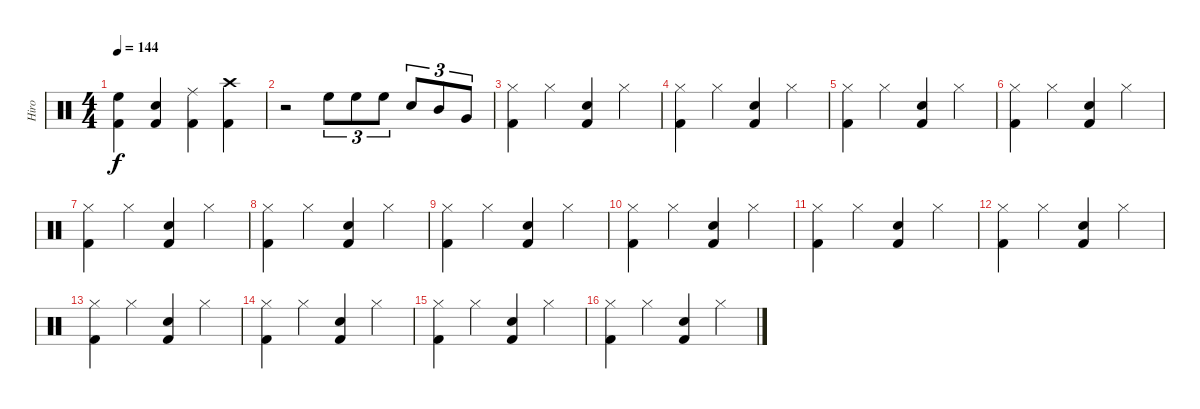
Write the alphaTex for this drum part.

\track ("Hiro" "Hiro") {instrument percussion}
\staff {score}
\articulation defaults
\ts (4 4)
\tempo 144
\clef neutral
\ks c
("High Floor Tom (hit)" "Kick (hit) 2").4{dy f} ("Snare (hit) 2" "Kick (hit) 2").4 ("Kick (hit) 2" "Ride (middle)").4 ("Crash high (hit)" "Kick (hit) 2").4 |
r.2 "High Floor Tom (hit)".8{tu (3 2)} "High Floor Tom (hit)".8{tu (3 2)} "High Floor Tom (hit)".8{tu (3 2)} "Snare (hit) 2".8{tu (3 2)} "Mid Tom (hit)".8{tu (3 2)} "Very Low Tom (hit)".8{tu (3 2)} |
("Hi-Hat (closed)" "Kick (hit) 2").4 "Hi-Hat (closed)".4 ("Kick (hit) 2" "Snare (hit) 2").4 "Hi-Hat (closed)".4 |
("Hi-Hat (closed)" "Kick (hit) 2").4 "Hi-Hat (closed)".4 ("Kick (hit) 2" "Snare (hit) 2").4 "Hi-Hat (closed)".4 |
("Hi-Hat (closed)" "Kick (hit) 2").4 "Hi-Hat (closed)".4 ("Kick (hit) 2" "Snare (hit) 2").4 "Hi-Hat (closed)".4 |
("Hi-Hat (closed)" "Kick (hit) 2").4 "Hi-Hat (closed)".4 ("Kick (hit) 2" "Snare (hit) 2").4 "Hi-Hat (closed)".4 |
("Hi-Hat (closed)" "Kick (hit) 2").4 "Hi-Hat (closed)".4 ("Kick (hit) 2" "Snare (hit) 2").4 "Hi-Hat (closed)".4 |
("Hi-Hat (closed)" "Kick (hit) 2").4 "Hi-Hat (closed)".4 ("Kick (hit) 2" "Snare (hit) 2").4 "Hi-Hat (closed)".4 |
("Hi-Hat (closed)" "Kick (hit) 2").4 "Hi-Hat (closed)".4 ("Kick (hit) 2" "Snare (hit) 2").4 "Hi-Hat (closed)".4 |
("Hi-Hat (closed)" "Kick (hit) 2").4 "Hi-Hat (closed)".4 ("Kick (hit) 2" "Snare (hit) 2").4 "Hi-Hat (closed)".4 |
("Hi-Hat (closed)" "Kick (hit) 2").4 "Hi-Hat (closed)".4 ("Kick (hit) 2" "Snare (hit) 2").4 "Hi-Hat (closed)".4 |
("Hi-Hat (closed)" "Kick (hit) 2").4 "Hi-Hat (closed)".4 ("Kick (hit) 2" "Snare (hit) 2").4 "Hi-Hat (closed)".4 |
("Hi-Hat (closed)" "Kick (hit) 2").4 "Hi-Hat (closed)".4 ("Kick (hit) 2" "Snare (hit) 2").4 "Hi-Hat (closed)".4 |
("Hi-Hat (closed)" "Kick (hit) 2").4 "Hi-Hat (closed)".4 ("Kick (hit) 2" "Snare (hit) 2").4 "Hi-Hat (closed)".4 |
("Hi-Hat (closed)" "Kick (hit) 2").4 "Hi-Hat (closed)".4 ("Kick (hit) 2" "Snare (hit) 2").4 "Hi-Hat (closed)".4 |
("Hi-Hat (closed)" "Kick (hit) 2").4 "Hi-Hat (closed)".4 ("Kick (hit) 2" "Snare (hit) 2").4 "Hi-Hat (closed)".4
